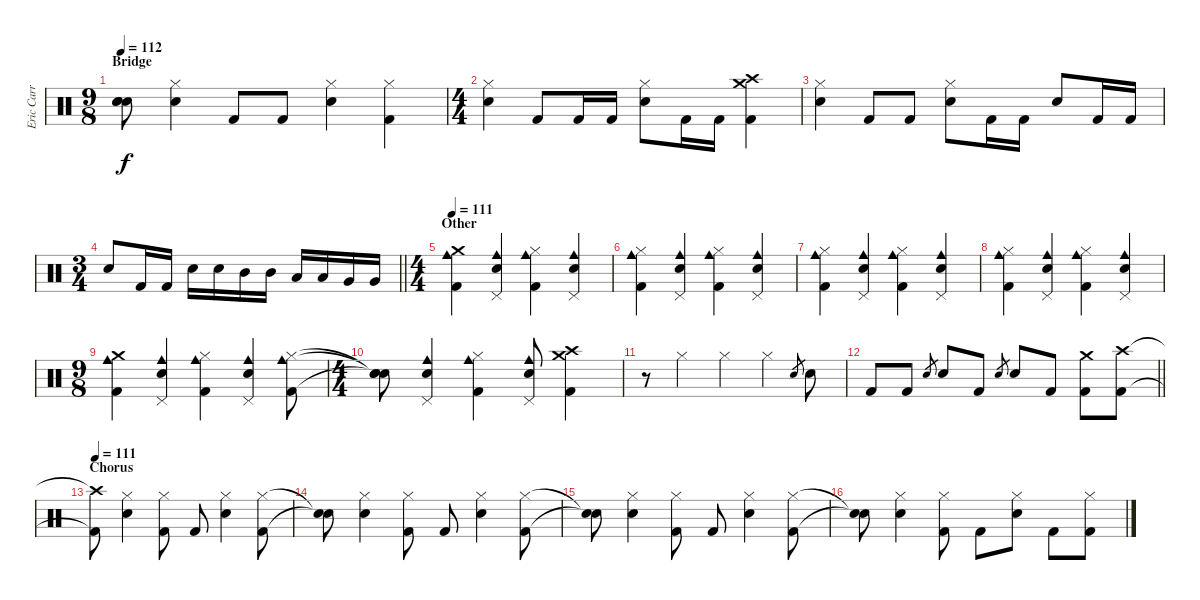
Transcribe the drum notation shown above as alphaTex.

\track ("Eric Carr" "Eric Carr") {instrument percussion}
\staff {score}
\articulation defaults
\ts (9 8)
\section ("" "Bridge")
\tempo 112
\clef neutral
\ks c
("Snare (hit)"{t} "Snare (hit)"{t} "Snare (hit)"{t}).8{dy f} ("Hi-Hat (closed)" "Snare (hit) 2").4 "Kick (hit) 2".8 "Kick (hit) 2".8 ("Hi-Hat (closed)" "Snare (hit) 2").4 ("Hi-Hat (closed)" "Kick (hit) 2").4 |
\ts (4 4)
("Hi-Hat (closed)" "Snare (hit) 2").4 "Kick (hit) 2".8 "Kick (hit) 2".16 "Kick (hit) 2".16 ("Hi-Hat (closed)" "Snare (hit) 2").8 "Kick (hit) 2".16 "Kick (hit) 2".16 ("Crash medium (hit)" "Crash high (hit)" "Kick (hit) 2").4 |
("Hi-Hat (closed)" "Snare (hit) 2").4 "Kick (hit) 2".8 "Kick (hit) 2".8 ("Hi-Hat (closed)" "Snare (hit) 2").8 "Kick (hit) 2".16 "Kick (hit) 2".16 "Snare (hit) 2".8 "Kick (hit) 2".16 "Kick (hit) 2".16 |
\ts (3 4)
\barLineRight lightlight "Snare (hit) 2".8 "Kick (hit) 2".16 "Kick (hit) 2".16 "Snare (hit) 2".16 "Snare (hit) 2".16 "Mid Tom (hit)".16 "Mid Tom (hit)".16 "Low Tom (hit)".16 "Low Tom (hit)".16 "Very Low Tom (hit)".16 "Very Low Tom (hit)".16
|
\ts (4 4)
\section ("" "Other")
\tempo 111
("Crash medium (hit)" "Cowbell medium (hit)" "Kick (hit) 2").4 ("Cowbell medium (hit)" "Snare (hit) 2" "Pedal Hi-Hat (hit)").4 ("Hi-Hat (closed)" "Cowbell medium (hit)" "Kick (hit) 2").4 ("Cowbell medium (hit)" "Snare (hit) 2" "Pedal Hi-Hat (hit)").4 |
("Hi-Hat (closed)" "Cowbell medium (hit)" "Kick (hit) 2").4 ("Cowbell medium (hit)" "Snare (hit) 2" "Pedal Hi-Hat (hit)").4 ("Hi-Hat (closed)" "Cowbell medium (hit)" "Kick (hit) 2").4 ("Cowbell medium (hit)" "Snare (hit) 2" "Pedal Hi-Hat (hit)").4 |
("Hi-Hat (closed)" "Cowbell medium (hit)" "Kick (hit) 2").4 ("Cowbell medium (hit)" "Snare (hit) 2" "Pedal Hi-Hat (hit)").4 ("Hi-Hat (closed)" "Cowbell medium (hit)" "Kick (hit) 2").4 ("Cowbell medium (hit)" "Snare (hit) 2" "Pedal Hi-Hat (hit)").4 |
("Hi-Hat (closed)" "Cowbell medium (hit)" "Kick (hit) 2").4 ("Cowbell medium (hit)" "Snare (hit) 2" "Pedal Hi-Hat (hit)").4 ("Hi-Hat (closed)" "Cowbell medium (hit)" "Kick (hit) 2").4 ("Cowbell medium (hit)" "Snare (hit) 2" "Pedal Hi-Hat (hit)").4 |
\ts (9 8)
("Crash medium (hit)" "Cowbell medium (hit)" "Kick (hit) 2").4 ("Cowbell medium (hit)" "Snare (hit) 2" "Pedal Hi-Hat (hit)").4 ("Hi-Hat (closed)" "Cowbell medium (hit)" "Kick (hit) 2").4 ("Cowbell medium (hit)" "Snare (hit) 2" "Pedal Hi-Hat (hit)").4 ("Hi-Hat (closed)" "Cowbell medium (hit)" "Kick (hit) 2").8 |
\ts (4 4)
("Snare (hit)"{t} "Snare (hit)"{t} "Snare (hit)"{t}).8 ("Cowbell medium (hit)" "Snare (hit) 2" "Pedal Hi-Hat (hit)").4 ("Hi-Hat (closed)" "Cowbell medium (hit)" "Kick (hit) 2").4 ("Cowbell medium (hit)" "Snare (hit) 2" "Pedal Hi-Hat (hit)").8 ("Crash medium (hit)" "Crash high (hit)" "Kick (hit) 2").4 |
r.8 "Hi-Hat (closed)".4 "Hi-Hat (closed)".4 "Hi-Hat (closed)".4 "Snare (hit) 2".8{gr} "Snare (hit) 2".8 |
\barLineRight lightlight "Kick (hit) 2".8 "Kick (hit) 2".8 "Snare (hit) 2".8{gr} "Snare (hit) 2".8 "Kick (hit) 2".8 "Snare (hit) 2".8{gr} "Snare (hit) 2".8 "Kick (hit) 2".8
("Crash medium (hit)" "Kick (hit) 2").8 ("Crash high (hit)" "Kick (hit) 2").8 |
\section ("" "Chorus")
\tempo 111
("Crash high (hit)"{t} "Kick (hit) 2"{t}).8 ("Hi-Hat (closed)" "Snare (hit) 2").4 ("Hi-Hat (closed)" "Kick (hit) 2").8 "Kick (hit) 2".8 ("Hi-Hat (closed)" "Snare (hit) 2").4 ("Hi-Hat (closed)" "Kick (hit) 2").8 |
("Snare (hit)"{t} "Snare (hit)"{t}).8 ("Hi-Hat (closed)" "Snare (hit) 2").4 ("Hi-Hat (closed)" "Kick (hit) 2").8 "Kick (hit) 2".8 ("Hi-Hat (closed)" "Snare (hit) 2").4 ("Hi-Hat (closed)" "Kick (hit) 2").8 |
("Snare (hit)"{t} "Snare (hit)"{t}).8 ("Hi-Hat (closed)" "Snare (hit) 2").4 ("Hi-Hat (closed)" "Kick (hit) 2").8 "Kick (hit) 2".8 ("Hi-Hat (closed)" "Snare (hit) 2").4 ("Hi-Hat (closed)" "Kick (hit) 2").8 |
("Snare (hit)"{t} "Snare (hit)"{t}).8 ("Hi-Hat (closed)" "Snare (hit) 2").4 ("Hi-Hat (closed)" "Kick (hit) 2").8 "Kick (hit) 2".8 ("Hi-Hat (closed)" "Snare (hit) 2").8 "Kick (hit) 2".8 ("Hi-Hat (closed)" "Kick (hit) 2").8
